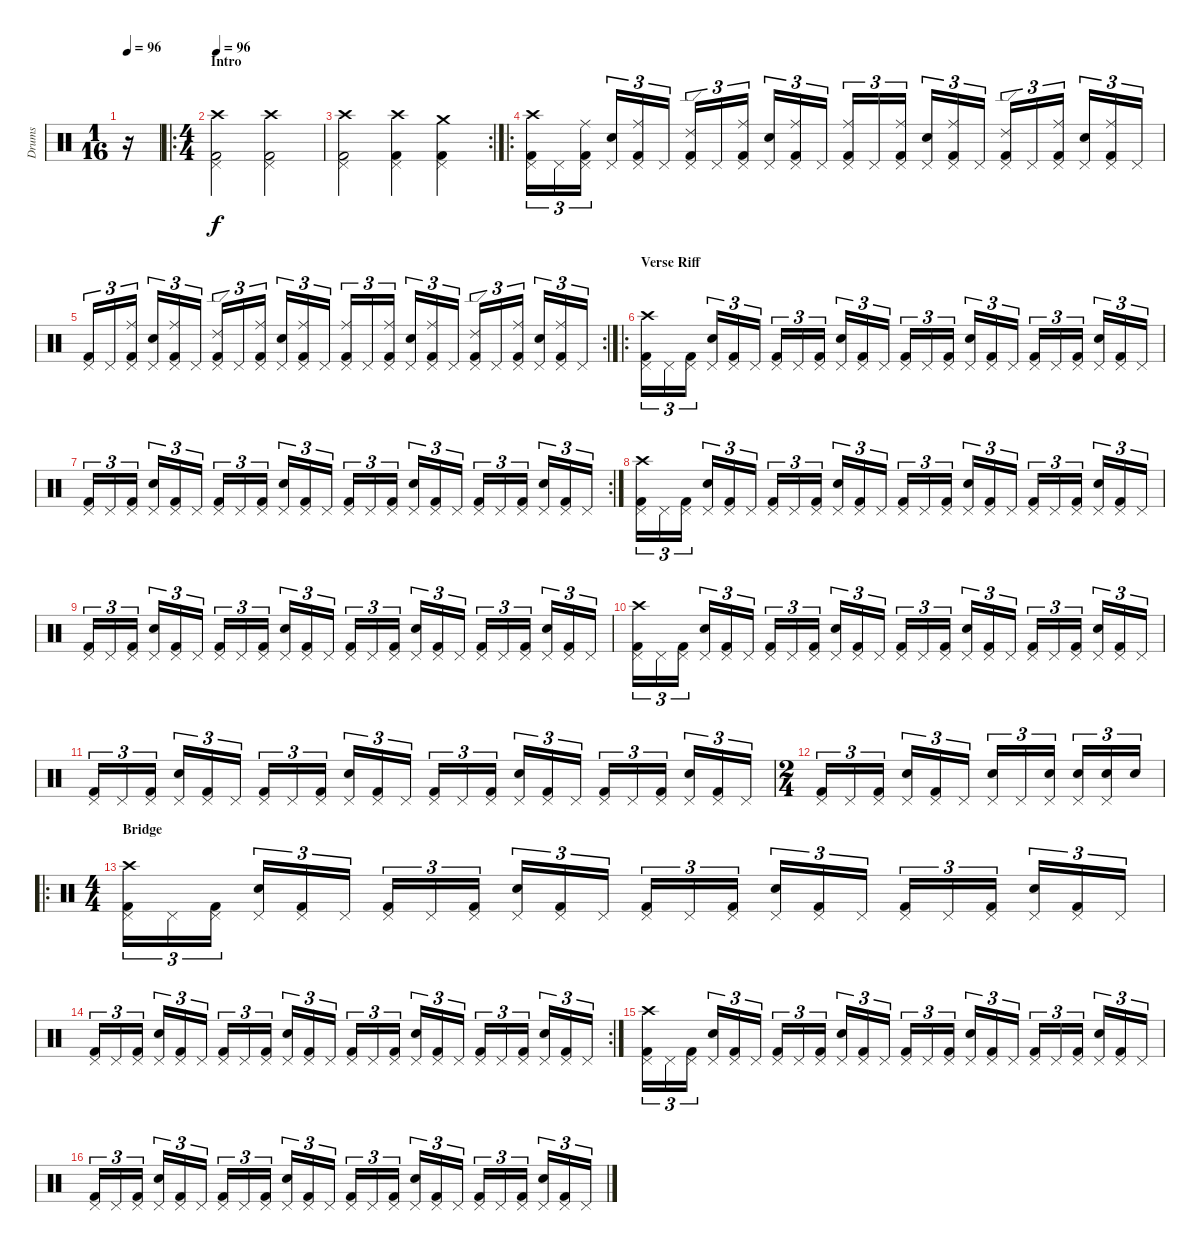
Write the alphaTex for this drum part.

\track ("Drums" "Drums") {instrument percussion}
\staff {score}
\articulation defaults
\ts (1 16)
\tempo 96
\clef neutral
\ks c
r.16{dy f} |
\ro
\ts (4 4)
\section ("" "Intro")
\tempo 96
("Kick (hit) 2" "Pedal Hi-Hat (hit)" "Crash high (hit)").2 ("Kick (hit) 2" "Pedal Hi-Hat (hit)" "Crash high (hit)").2 |
\rc 2
("Kick (hit) 2" "Pedal Hi-Hat (hit)" "Crash high (hit)").2 ("Kick (hit) 2" "Pedal Hi-Hat (hit)" "Crash high (hit)").4 ("Kick (hit) 2" "Pedal Hi-Hat (hit)" "Crash medium (hit)").4 |
\ro
("Kick (hit) 2" "Pedal Hi-Hat (hit)" "Crash high (hit)").16{tu (3 2)} "Pedal Hi-Hat (hit)".16{tu (3 2)} ("Kick (hit) 2" "Pedal Hi-Hat (hit)" "Ride (middle)").16{tu (3 2)} ("Snare (hit) 2" "Pedal Hi-Hat (hit)").16{tu (3 2)} ("Kick (hit) 2" "Pedal Hi-Hat (hit)" "Ride (middle)").16{tu (3 2)} "Pedal Hi-Hat (hit)".16{tu (3 2)} ("Kick (hit) 2" "Pedal Hi-Hat (hit)" "Ride (edge) 2").16{tu (3 2)} "Pedal Hi-Hat (hit)".16{tu (3 2)} ("Kick (hit) 2" "Pedal Hi-Hat (hit)" "Ride (middle)").16{tu (3 2)} ("Snare (hit) 2" "Pedal Hi-Hat (hit)").16{tu (3 2)} ("Kick (hit) 2" "Pedal Hi-Hat (hit)" "Ride (middle)").16{tu (3 2)} "Pedal Hi-Hat (hit)".16{tu (3 2)} ("Kick (hit) 2" "Pedal Hi-Hat (hit)" "Ride (middle)").16{tu (3 2)} "Pedal Hi-Hat (hit)".16{tu (3 2)} ("Kick (hit) 2" "Pedal Hi-Hat (hit)" "Ride (middle)").16{tu (3 2)} ("Snare (hit) 2" "Pedal Hi-Hat (hit)").16{tu (3 2)} ("Kick (hit) 2" "Pedal Hi-Hat (hit)" "Ride (middle)").16{tu (3 2)} "Pedal Hi-Hat (hit)".16{tu (3 2)} ("Kick (hit) 2" "Pedal Hi-Hat (hit)" "Ride (edge) 2").16{tu (3 2)} "Pedal Hi-Hat (hit)".16{tu (3 2)} ("Kick (hit) 2" "Pedal Hi-Hat (hit)" "Ride (middle)").16{tu (3 2)} ("Snare (hit) 2" "Pedal Hi-Hat (hit)").16{tu (3 2)} ("Kick (hit) 2" "Pedal Hi-Hat (hit)" "Ride (middle)").16{tu (3 2)} "Pedal Hi-Hat (hit)".16{tu (3 2)} |
\rc 2
("Kick (hit) 2" "Pedal Hi-Hat (hit)").16{tu (3 2)} "Pedal Hi-Hat (hit)".16{tu (3 2)} ("Kick (hit) 2" "Pedal Hi-Hat (hit)" "Ride (middle)").16{tu (3 2)} ("Snare (hit) 2" "Pedal Hi-Hat (hit)").16{tu (3 2)} ("Kick (hit) 2" "Pedal Hi-Hat (hit)" "Ride (middle)").16{tu (3 2)} "Pedal Hi-Hat (hit)".16{tu (3 2)} ("Kick (hit) 2" "Pedal Hi-Hat (hit)" "Ride (edge) 2").16{tu (3 2)} "Pedal Hi-Hat (hit)".16{tu (3 2)} ("Kick (hit) 2" "Pedal Hi-Hat (hit)" "Ride (middle)").16{tu (3 2)} ("Snare (hit) 2" "Pedal Hi-Hat (hit)").16{tu (3 2)} ("Kick (hit) 2" "Pedal Hi-Hat (hit)" "Ride (middle)").16{tu (3 2)} "Pedal Hi-Hat (hit)".16{tu (3 2)} ("Kick (hit) 2" "Pedal Hi-Hat (hit)" "Ride (middle)").16{tu (3 2)} "Pedal Hi-Hat (hit)".16{tu (3 2)} ("Kick (hit) 2" "Pedal Hi-Hat (hit)" "Ride (middle)").16{tu (3 2)} ("Snare (hit) 2" "Pedal Hi-Hat (hit)").16{tu (3 2)} ("Kick (hit) 2" "Pedal Hi-Hat (hit)" "Ride (middle)").16{tu (3 2)} "Pedal Hi-Hat (hit)".16{tu (3 2)} ("Kick (hit) 2" "Pedal Hi-Hat (hit)" "Ride (edge) 2").16{tu (3 2)} "Pedal Hi-Hat (hit)".16{tu (3 2)} ("Kick (hit) 2" "Pedal Hi-Hat (hit)" "Ride (middle)").16{tu (3 2)} ("Snare (hit) 2" "Pedal Hi-Hat (hit)").16{tu (3 2)} ("Kick (hit) 2" "Pedal Hi-Hat (hit)" "Ride (middle)").16{tu (3 2)} "Pedal Hi-Hat (hit)".16{tu (3 2)} |
\ro
\section ("" "Verse Riff")
("Kick (hit) 2" "Pedal Hi-Hat (hit)" "Crash high (hit)").16{tu (3 2)} "Pedal Hi-Hat (hit)".16{tu (3 2)} ("Kick (hit) 2" "Pedal Hi-Hat (hit)").16{tu (3 2)} ("Snare (hit) 2" "Pedal Hi-Hat (hit)").16{tu (3 2)} ("Kick (hit) 2" "Pedal Hi-Hat (hit)").16{tu (3 2)} "Pedal Hi-Hat (hit)".16{tu (3 2)} ("Kick (hit) 2" "Pedal Hi-Hat (hit)").16{tu (3 2)} "Pedal Hi-Hat (hit)".16{tu (3 2)} ("Kick (hit) 2" "Pedal Hi-Hat (hit)").16{tu (3 2)} ("Snare (hit) 2" "Pedal Hi-Hat (hit)").16{tu (3 2)} ("Kick (hit) 2" "Pedal Hi-Hat (hit)").16{tu (3 2)} "Pedal Hi-Hat (hit)".16{tu (3 2)} ("Kick (hit) 2" "Pedal Hi-Hat (hit)").16{tu (3 2)} "Pedal Hi-Hat (hit)".16{tu (3 2)} ("Kick (hit) 2" "Pedal Hi-Hat (hit)").16{tu (3 2)} ("Snare (hit) 2" "Pedal Hi-Hat (hit)").16{tu (3 2)} ("Kick (hit) 2" "Pedal Hi-Hat (hit)").16{tu (3 2)} "Pedal Hi-Hat (hit)".16{tu (3 2)} ("Kick (hit) 2" "Pedal Hi-Hat (hit)").16{tu (3 2)} "Pedal Hi-Hat (hit)".16{tu (3 2)} ("Kick (hit) 2" "Pedal Hi-Hat (hit)").16{tu (3 2)} ("Snare (hit) 2" "Pedal Hi-Hat (hit)").16{tu (3 2)} ("Kick (hit) 2" "Pedal Hi-Hat (hit)").16{tu (3 2)} "Pedal Hi-Hat (hit)".16{tu (3 2)} |
\rc 2
("Kick (hit) 2" "Pedal Hi-Hat (hit)").16{tu (3 2)} "Pedal Hi-Hat (hit)".16{tu (3 2)} ("Kick (hit) 2" "Pedal Hi-Hat (hit)").16{tu (3 2)} ("Snare (hit) 2" "Pedal Hi-Hat (hit)").16{tu (3 2)} ("Kick (hit) 2" "Pedal Hi-Hat (hit)").16{tu (3 2)} "Pedal Hi-Hat (hit)".16{tu (3 2)} ("Kick (hit) 2" "Pedal Hi-Hat (hit)").16{tu (3 2)} "Pedal Hi-Hat (hit)".16{tu (3 2)} ("Kick (hit) 2" "Pedal Hi-Hat (hit)").16{tu (3 2)} ("Snare (hit) 2" "Pedal Hi-Hat (hit)").16{tu (3 2)} ("Kick (hit) 2" "Pedal Hi-Hat (hit)").16{tu (3 2)} "Pedal Hi-Hat (hit)".16{tu (3 2)} ("Kick (hit) 2" "Pedal Hi-Hat (hit)").16{tu (3 2)} "Pedal Hi-Hat (hit)".16{tu (3 2)} ("Kick (hit) 2" "Pedal Hi-Hat (hit)").16{tu (3 2)} ("Snare (hit) 2" "Pedal Hi-Hat (hit)").16{tu (3 2)} ("Kick (hit) 2" "Pedal Hi-Hat (hit)").16{tu (3 2)} "Pedal Hi-Hat (hit)".16{tu (3 2)} ("Kick (hit) 2" "Pedal Hi-Hat (hit)").16{tu (3 2)} "Pedal Hi-Hat (hit)".16{tu (3 2)} ("Kick (hit) 2" "Pedal Hi-Hat (hit)").16{tu (3 2)} ("Snare (hit) 2" "Pedal Hi-Hat (hit)").16{tu (3 2)} ("Kick (hit) 2" "Pedal Hi-Hat (hit)").16{tu (3 2)} "Pedal Hi-Hat (hit)".16{tu (3 2)} |
("Kick (hit) 2" "Pedal Hi-Hat (hit)" "Crash high (hit)").16{tu (3 2)} "Pedal Hi-Hat (hit)".16{tu (3 2)} ("Kick (hit) 2" "Pedal Hi-Hat (hit)").16{tu (3 2)} ("Snare (hit) 2" "Pedal Hi-Hat (hit)").16{tu (3 2)} ("Kick (hit) 2" "Pedal Hi-Hat (hit)").16{tu (3 2)} "Pedal Hi-Hat (hit)".16{tu (3 2)} ("Kick (hit) 2" "Pedal Hi-Hat (hit)").16{tu (3 2)} "Pedal Hi-Hat (hit)".16{tu (3 2)} ("Kick (hit) 2" "Pedal Hi-Hat (hit)").16{tu (3 2)} ("Snare (hit) 2" "Pedal Hi-Hat (hit)").16{tu (3 2)} ("Kick (hit) 2" "Pedal Hi-Hat (hit)").16{tu (3 2)} "Pedal Hi-Hat (hit)".16{tu (3 2)} ("Kick (hit) 2" "Pedal Hi-Hat (hit)").16{tu (3 2)} "Pedal Hi-Hat (hit)".16{tu (3 2)} ("Kick (hit) 2" "Pedal Hi-Hat (hit)").16{tu (3 2)} ("Snare (hit) 2" "Pedal Hi-Hat (hit)").16{tu (3 2)} ("Kick (hit) 2" "Pedal Hi-Hat (hit)").16{tu (3 2)} "Pedal Hi-Hat (hit)".16{tu (3 2)} ("Kick (hit) 2" "Pedal Hi-Hat (hit)").16{tu (3 2)} "Pedal Hi-Hat (hit)".16{tu (3 2)} ("Kick (hit) 2" "Pedal Hi-Hat (hit)").16{tu (3 2)} ("Snare (hit) 2" "Pedal Hi-Hat (hit)").16{tu (3 2)} ("Kick (hit) 2" "Pedal Hi-Hat (hit)").16{tu (3 2)} "Pedal Hi-Hat (hit)".16{tu (3 2)} |
("Kick (hit) 2" "Pedal Hi-Hat (hit)").16{tu (3 2)} "Pedal Hi-Hat (hit)".16{tu (3 2)} ("Kick (hit) 2" "Pedal Hi-Hat (hit)").16{tu (3 2)} ("Snare (hit) 2" "Pedal Hi-Hat (hit)").16{tu (3 2)} ("Kick (hit) 2" "Pedal Hi-Hat (hit)").16{tu (3 2)} "Pedal Hi-Hat (hit)".16{tu (3 2)} ("Kick (hit) 2" "Pedal Hi-Hat (hit)").16{tu (3 2)} "Pedal Hi-Hat (hit)".16{tu (3 2)} ("Kick (hit) 2" "Pedal Hi-Hat (hit)").16{tu (3 2)} ("Snare (hit) 2" "Pedal Hi-Hat (hit)").16{tu (3 2)} ("Kick (hit) 2" "Pedal Hi-Hat (hit)").16{tu (3 2)} "Pedal Hi-Hat (hit)".16{tu (3 2)} ("Kick (hit) 2" "Pedal Hi-Hat (hit)").16{tu (3 2)} "Pedal Hi-Hat (hit)".16{tu (3 2)} ("Kick (hit) 2" "Pedal Hi-Hat (hit)").16{tu (3 2)} ("Snare (hit) 2" "Pedal Hi-Hat (hit)").16{tu (3 2)} ("Kick (hit) 2" "Pedal Hi-Hat (hit)").16{tu (3 2)} "Pedal Hi-Hat (hit)".16{tu (3 2)} ("Kick (hit) 2" "Pedal Hi-Hat (hit)").16{tu (3 2)} "Pedal Hi-Hat (hit)".16{tu (3 2)} ("Kick (hit) 2" "Pedal Hi-Hat (hit)").16{tu (3 2)} ("Snare (hit) 2" "Pedal Hi-Hat (hit)").16{tu (3 2)} ("Kick (hit) 2" "Pedal Hi-Hat (hit)").16{tu (3 2)} "Pedal Hi-Hat (hit)".16{tu (3 2)} |
("Kick (hit) 2" "Pedal Hi-Hat (hit)" "Crash high (hit)").16{tu (3 2)} "Pedal Hi-Hat (hit)".16{tu (3 2)} ("Kick (hit) 2" "Pedal Hi-Hat (hit)").16{tu (3 2)} ("Snare (hit) 2" "Pedal Hi-Hat (hit)").16{tu (3 2)} ("Kick (hit) 2" "Pedal Hi-Hat (hit)").16{tu (3 2)} "Pedal Hi-Hat (hit)".16{tu (3 2)} ("Kick (hit) 2" "Pedal Hi-Hat (hit)").16{tu (3 2)} "Pedal Hi-Hat (hit)".16{tu (3 2)} ("Kick (hit) 2" "Pedal Hi-Hat (hit)").16{tu (3 2)} ("Snare (hit) 2" "Pedal Hi-Hat (hit)").16{tu (3 2)} ("Kick (hit) 2" "Pedal Hi-Hat (hit)").16{tu (3 2)} "Pedal Hi-Hat (hit)".16{tu (3 2)} ("Kick (hit) 2" "Pedal Hi-Hat (hit)").16{tu (3 2)} "Pedal Hi-Hat (hit)".16{tu (3 2)} ("Kick (hit) 2" "Pedal Hi-Hat (hit)").16{tu (3 2)} ("Snare (hit) 2" "Pedal Hi-Hat (hit)").16{tu (3 2)} ("Kick (hit) 2" "Pedal Hi-Hat (hit)").16{tu (3 2)} "Pedal Hi-Hat (hit)".16{tu (3 2)} ("Kick (hit) 2" "Pedal Hi-Hat (hit)").16{tu (3 2)} "Pedal Hi-Hat (hit)".16{tu (3 2)} ("Kick (hit) 2" "Pedal Hi-Hat (hit)").16{tu (3 2)} ("Snare (hit) 2" "Pedal Hi-Hat (hit)").16{tu (3 2)} ("Kick (hit) 2" "Pedal Hi-Hat (hit)").16{tu (3 2)} "Pedal Hi-Hat (hit)".16{tu (3 2)} |
("Kick (hit) 2" "Pedal Hi-Hat (hit)").16{tu (3 2)} "Pedal Hi-Hat (hit)".16{tu (3 2)} ("Kick (hit) 2" "Pedal Hi-Hat (hit)").16{tu (3 2)} ("Snare (hit) 2" "Pedal Hi-Hat (hit)").16{tu (3 2)} ("Kick (hit) 2" "Pedal Hi-Hat (hit)").16{tu (3 2)} "Pedal Hi-Hat (hit)".16{tu (3 2)} ("Kick (hit) 2" "Pedal Hi-Hat (hit)").16{tu (3 2)} "Pedal Hi-Hat (hit)".16{tu (3 2)} ("Kick (hit) 2" "Pedal Hi-Hat (hit)").16{tu (3 2)} ("Snare (hit) 2" "Pedal Hi-Hat (hit)").16{tu (3 2)} ("Kick (hit) 2" "Pedal Hi-Hat (hit)").16{tu (3 2)} "Pedal Hi-Hat (hit)".16{tu (3 2)} ("Kick (hit) 2" "Pedal Hi-Hat (hit)").16{tu (3 2)} "Pedal Hi-Hat (hit)".16{tu (3 2)} ("Kick (hit) 2" "Pedal Hi-Hat (hit)").16{tu (3 2)} ("Snare (hit) 2" "Pedal Hi-Hat (hit)").16{tu (3 2)} ("Kick (hit) 2" "Pedal Hi-Hat (hit)").16{tu (3 2)} "Pedal Hi-Hat (hit)".16{tu (3 2)} ("Kick (hit) 2" "Pedal Hi-Hat (hit)").16{tu (3 2)} "Pedal Hi-Hat (hit)".16{tu (3 2)} ("Kick (hit) 2" "Pedal Hi-Hat (hit)").16{tu (3 2)} ("Snare (hit) 2" "Pedal Hi-Hat (hit)").16{tu (3 2)} ("Kick (hit) 2" "Pedal Hi-Hat (hit)").16{tu (3 2)} "Pedal Hi-Hat (hit)".16{tu (3 2)} |
\ts (2 4)
("Kick (hit) 2" "Pedal Hi-Hat (hit)").16{tu (3 2)} "Pedal Hi-Hat (hit)".16{tu (3 2)} ("Kick (hit) 2" "Pedal Hi-Hat (hit)").16{tu (3 2)} ("Snare (hit) 2" "Pedal Hi-Hat (hit)").16{tu (3 2)} ("Kick (hit) 2" "Pedal Hi-Hat (hit)").16{tu (3 2)} "Pedal Hi-Hat (hit)".16{tu (3 2)} ("Snare (hit) 2" "Pedal Hi-Hat (hit)").16{tu (3 2)} "Pedal Hi-Hat (hit)".16{tu (3 2)} ("Snare (hit) 2" "Pedal Hi-Hat (hit)").16{tu (3 2)} ("Snare (hit) 2" "Pedal Hi-Hat (hit)").16{tu (3 2)} ("Snare (hit) 2" "Pedal Hi-Hat (hit)").16{tu (3 2)} "Snare (hit) 2".16{tu (3 2)} |
\ro
\ts (4 4)
\section ("" "Bridge")
("Kick (hit) 2" "Pedal Hi-Hat (hit)" "Crash high (hit)").16{tu (3 2)} "Pedal Hi-Hat (hit)".16{tu (3 2)} ("Kick (hit) 2" "Pedal Hi-Hat (hit)").16{tu (3 2)} ("Snare (hit) 2" "Pedal Hi-Hat (hit)").16{tu (3 2)} ("Kick (hit) 2" "Pedal Hi-Hat (hit)").16{tu (3 2)} "Pedal Hi-Hat (hit)".16{tu (3 2)} ("Kick (hit) 2" "Pedal Hi-Hat (hit)").16{tu (3 2)} "Pedal Hi-Hat (hit)".16{tu (3 2)} ("Kick (hit) 2" "Pedal Hi-Hat (hit)").16{tu (3 2)} ("Snare (hit) 2" "Pedal Hi-Hat (hit)").16{tu (3 2)} ("Kick (hit) 2" "Pedal Hi-Hat (hit)").16{tu (3 2)} "Pedal Hi-Hat (hit)".16{tu (3 2)} ("Kick (hit) 2" "Pedal Hi-Hat (hit)").16{tu (3 2)} "Pedal Hi-Hat (hit)".16{tu (3 2)} ("Kick (hit) 2" "Pedal Hi-Hat (hit)").16{tu (3 2)} ("Snare (hit) 2" "Pedal Hi-Hat (hit)").16{tu (3 2)} ("Kick (hit) 2" "Pedal Hi-Hat (hit)").16{tu (3 2)} "Pedal Hi-Hat (hit)".16{tu (3 2)} ("Kick (hit) 2" "Pedal Hi-Hat (hit)").16{tu (3 2)} "Pedal Hi-Hat (hit)".16{tu (3 2)} ("Kick (hit) 2" "Pedal Hi-Hat (hit)").16{tu (3 2)} ("Snare (hit) 2" "Pedal Hi-Hat (hit)").16{tu (3 2)} ("Kick (hit) 2" "Pedal Hi-Hat (hit)").16{tu (3 2)} "Pedal Hi-Hat (hit)".16{tu (3 2)} |
\rc 2
("Kick (hit) 2" "Pedal Hi-Hat (hit)").16{tu (3 2)} "Pedal Hi-Hat (hit)".16{tu (3 2)} ("Kick (hit) 2" "Pedal Hi-Hat (hit)").16{tu (3 2)} ("Snare (hit) 2" "Pedal Hi-Hat (hit)").16{tu (3 2)} ("Kick (hit) 2" "Pedal Hi-Hat (hit)").16{tu (3 2)} "Pedal Hi-Hat (hit)".16{tu (3 2)} ("Kick (hit) 2" "Pedal Hi-Hat (hit)").16{tu (3 2)} "Pedal Hi-Hat (hit)".16{tu (3 2)} ("Kick (hit) 2" "Pedal Hi-Hat (hit)").16{tu (3 2)} ("Snare (hit) 2" "Pedal Hi-Hat (hit)").16{tu (3 2)} ("Kick (hit) 2" "Pedal Hi-Hat (hit)").16{tu (3 2)} "Pedal Hi-Hat (hit)".16{tu (3 2)} ("Kick (hit) 2" "Pedal Hi-Hat (hit)").16{tu (3 2)} "Pedal Hi-Hat (hit)".16{tu (3 2)} ("Kick (hit) 2" "Pedal Hi-Hat (hit)").16{tu (3 2)} ("Snare (hit) 2" "Pedal Hi-Hat (hit)").16{tu (3 2)} ("Kick (hit) 2" "Pedal Hi-Hat (hit)").16{tu (3 2)} "Pedal Hi-Hat (hit)".16{tu (3 2)} ("Kick (hit) 2" "Pedal Hi-Hat (hit)").16{tu (3 2)} "Pedal Hi-Hat (hit)".16{tu (3 2)} ("Kick (hit) 2" "Pedal Hi-Hat (hit)").16{tu (3 2)} ("Snare (hit) 2" "Pedal Hi-Hat (hit)").16{tu (3 2)} ("Kick (hit) 2" "Pedal Hi-Hat (hit)").16{tu (3 2)} "Pedal Hi-Hat (hit)".16{tu (3 2)} |
("Kick (hit) 2" "Pedal Hi-Hat (hit)" "Crash high (hit)").16{tu (3 2)} "Pedal Hi-Hat (hit)".16{tu (3 2)} ("Kick (hit) 2" "Pedal Hi-Hat (hit)").16{tu (3 2)} ("Snare (hit) 2" "Pedal Hi-Hat (hit)").16{tu (3 2)} ("Kick (hit) 2" "Pedal Hi-Hat (hit)").16{tu (3 2)} "Pedal Hi-Hat (hit)".16{tu (3 2)} ("Kick (hit) 2" "Pedal Hi-Hat (hit)").16{tu (3 2)} "Pedal Hi-Hat (hit)".16{tu (3 2)} ("Kick (hit) 2" "Pedal Hi-Hat (hit)").16{tu (3 2)} ("Snare (hit) 2" "Pedal Hi-Hat (hit)").16{tu (3 2)} ("Kick (hit) 2" "Pedal Hi-Hat (hit)").16{tu (3 2)} "Pedal Hi-Hat (hit)".16{tu (3 2)} ("Kick (hit) 2" "Pedal Hi-Hat (hit)").16{tu (3 2)} "Pedal Hi-Hat (hit)".16{tu (3 2)} ("Kick (hit) 2" "Pedal Hi-Hat (hit)").16{tu (3 2)} ("Snare (hit) 2" "Pedal Hi-Hat (hit)").16{tu (3 2)} ("Kick (hit) 2" "Pedal Hi-Hat (hit)").16{tu (3 2)} "Pedal Hi-Hat (hit)".16{tu (3 2)} ("Kick (hit) 2" "Pedal Hi-Hat (hit)").16{tu (3 2)} "Pedal Hi-Hat (hit)".16{tu (3 2)} ("Kick (hit) 2" "Pedal Hi-Hat (hit)").16{tu (3 2)} ("Snare (hit) 2" "Pedal Hi-Hat (hit)").16{tu (3 2)} ("Kick (hit) 2" "Pedal Hi-Hat (hit)").16{tu (3 2)} "Pedal Hi-Hat (hit)".16{tu (3 2)} |
("Kick (hit) 2" "Pedal Hi-Hat (hit)").16{tu (3 2)} "Pedal Hi-Hat (hit)".16{tu (3 2)} ("Kick (hit) 2" "Pedal Hi-Hat (hit)").16{tu (3 2)} ("Snare (hit) 2" "Pedal Hi-Hat (hit)").16{tu (3 2)} ("Kick (hit) 2" "Pedal Hi-Hat (hit)").16{tu (3 2)} "Pedal Hi-Hat (hit)".16{tu (3 2)} ("Kick (hit) 2" "Pedal Hi-Hat (hit)").16{tu (3 2)} "Pedal Hi-Hat (hit)".16{tu (3 2)} ("Kick (hit) 2" "Pedal Hi-Hat (hit)").16{tu (3 2)} ("Snare (hit) 2" "Pedal Hi-Hat (hit)").16{tu (3 2)} ("Kick (hit) 2" "Pedal Hi-Hat (hit)").16{tu (3 2)} "Pedal Hi-Hat (hit)".16{tu (3 2)} ("Kick (hit) 2" "Pedal Hi-Hat (hit)").16{tu (3 2)} "Pedal Hi-Hat (hit)".16{tu (3 2)} ("Kick (hit) 2" "Pedal Hi-Hat (hit)").16{tu (3 2)} ("Snare (hit) 2" "Pedal Hi-Hat (hit)").16{tu (3 2)} ("Kick (hit) 2" "Pedal Hi-Hat (hit)").16{tu (3 2)} "Pedal Hi-Hat (hit)".16{tu (3 2)} ("Kick (hit) 2" "Pedal Hi-Hat (hit)").16{tu (3 2)} "Pedal Hi-Hat (hit)".16{tu (3 2)} ("Kick (hit) 2" "Pedal Hi-Hat (hit)").16{tu (3 2)} ("Snare (hit) 2" "Pedal Hi-Hat (hit)").16{tu (3 2)} ("Kick (hit) 2" "Pedal Hi-Hat (hit)").16{tu (3 2)} "Pedal Hi-Hat (hit)".16{tu (3 2)}
